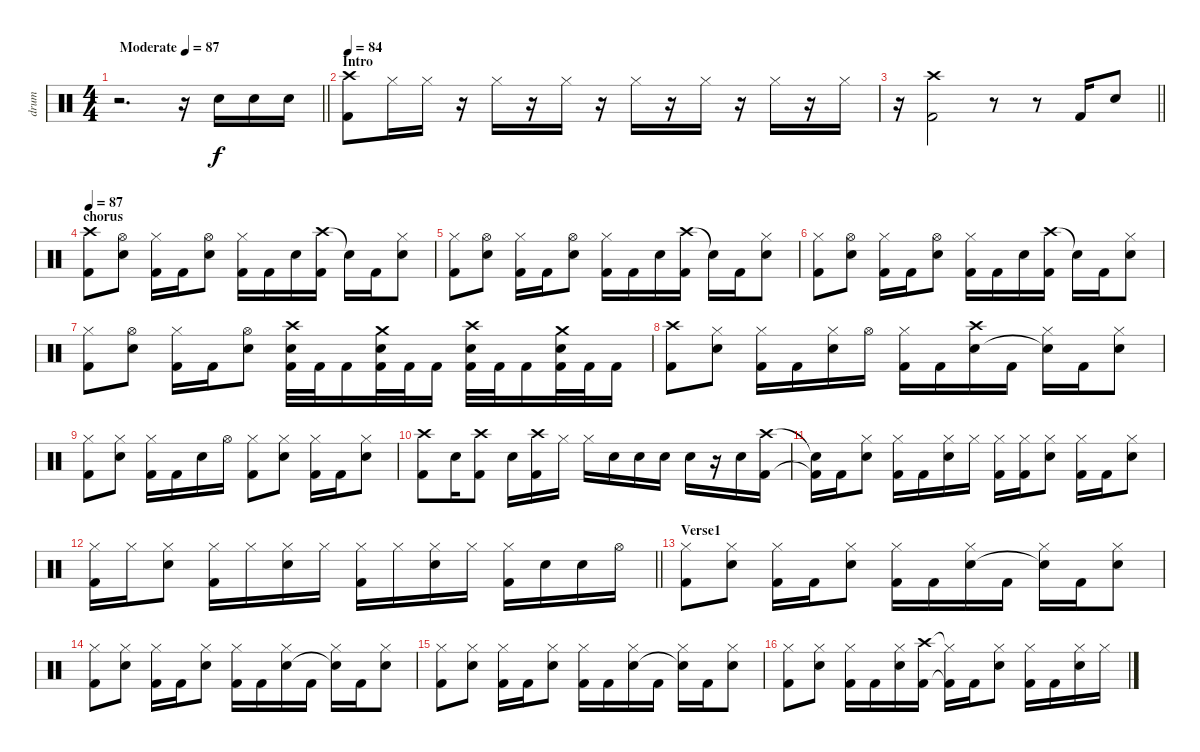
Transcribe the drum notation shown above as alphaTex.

\track ("drum" "drum") {instrument percussion}
\staff {score}
\articulation defaults
\ts (4 4)
\section ("" "")
\tempo (87 "Moderate")
\clef neutral
\barLineRight lightlight
\ks c
r.2{d dy f} r.16 "Snare (hit) 2".16 "Snare (hit) 2".16 "Snare (hit) 2".16 |
\section ("" "Intro")
\tempo 84
("Crash high (hit)" "Kick (hit) 2").8 "Hi-Hat (closed)".16 "Hi-Hat (closed)".16 r.16 "Hi-Hat (closed)".16 r.16 "Hi-Hat (closed)".16 r.16 "Hi-Hat (closed)".16 r.16 "Hi-Hat (closed)".16 r.16 "Hi-Hat (closed)".16 r.16 "Hi-Hat (closed)".16 |
\barLineRight lightlight
r.16 ("Crash high (hit)" "Kick (hit) 2").2 r.8 r.8 "Kick (hit) 2".16 "Snare (hit) 2".8 |
\section ("" "chorus")
\tempo 87
("Crash high (hit)" "Kick (hit) 2").8 ("Hi-Hat (open)" "Snare (hit) 2").8 ("Hi-Hat (closed)" "Kick (hit) 2").16 "Kick (hit) 2".16 ("Hi-Hat (open)" "Snare (hit) 2").8 ("Hi-Hat (closed)" "Kick (hit) 2").16 "Kick (hit) 2".16 "Snare (hit) 2".16 ("Crash high (hit)" "Kick (hit) 2").16 "Snare (hit)"{t}.16 "Kick (hit) 2".16 ("Hi-Hat (closed)" "Snare (hit) 2").8 |
("Hi-Hat (closed)" "Kick (hit) 2").8 ("Hi-Hat (open)" "Snare (hit) 2").8 ("Hi-Hat (closed)" "Kick (hit) 2").16 "Kick (hit) 2".16 ("Hi-Hat (open)" "Snare (hit) 2").8 ("Hi-Hat (closed)" "Kick (hit) 2").16 "Kick (hit) 2".16 "Snare (hit) 2".16 ("Crash high (hit)" "Kick (hit) 2").16 "Snare (hit)"{t}.16 "Kick (hit) 2".16 ("Hi-Hat (closed)" "Snare (hit) 2").8 |
("Hi-Hat (closed)" "Kick (hit) 2").8 ("Hi-Hat (open)" "Snare (hit) 2").8 ("Hi-Hat (closed)" "Kick (hit) 2").16 "Kick (hit) 2".16 ("Hi-Hat (open)" "Snare (hit) 2").8 ("Hi-Hat (closed)" "Kick (hit) 2").16 "Kick (hit) 2".16 "Snare (hit) 2".16 ("Crash high (hit)" "Kick (hit) 2").16 "Snare (hit)"{t}.16 "Kick (hit) 2".16 ("Hi-Hat (closed)" "Snare (hit) 2").8 |
("Hi-Hat (closed)" "Kick (hit) 2").8 ("Hi-Hat (open)" "Snare (hit) 2").8 ("Hi-Hat (closed)" "Kick (hit) 2").16 "Kick (hit) 2".16 ("Hi-Hat (open)" "Snare (hit) 2").8 ("Crash high (hit)" "Snare (hit) 2" "Kick (hit) 2").32 "Kick (hit) 2".32 "Kick (hit) 2".16 ("Crash medium (hit)" "Snare (hit) 2" "Kick (hit) 2").32 "Kick (hit) 2".32 "Kick (hit) 2".16 ("Crash high (hit)" "Snare (hit) 2" "Kick (hit) 2").32 "Kick (hit) 2".32 "Kick (hit) 2".16 ("Crash medium (hit)" "Snare (hit) 2" "Kick (hit) 2").32 "Kick (hit) 2".32 "Kick (hit) 2".16 |
("Crash high (hit)" "Kick (hit) 2").8 ("Hi-Hat (closed)" "Snare (hit) 2").8 ("Hi-Hat (closed)" "Kick (hit) 2").16 "Kick (hit) 2".16 ("Hi-Hat (closed)" "Snare (hit) 2").16 "Hi-Hat (open)".16 ("Hi-Hat (closed)" "Kick (hit) 2").16 "Kick (hit) 2".16 ("Crash high (hit)" "Snare (hit) 2").16 "Kick (hit) 2".16 ("Hi-Hat (closed)" "Snare (hit)"{t}).16 "Kick (hit) 2".16 ("Hi-Hat (closed)" "Snare (hit) 2").8 |
("Hi-Hat (closed)" "Kick (hit) 2").8 ("Hi-Hat (closed)" "Snare (hit) 2").8 ("Hi-Hat (closed)" "Kick (hit) 2").16 "Kick (hit) 2".16 "Snare (hit) 2".16 "Hi-Hat (open)".16 ("Hi-Hat (closed)" "Kick (hit) 2").8 ("Hi-Hat (closed)" "Snare (hit) 2").8 ("Hi-Hat (closed)" "Kick (hit) 2").16 "Kick (hit) 2".16 ("Hi-Hat (closed)" "Snare (hit) 2").8 |
("Crash high (hit)" "Kick (hit) 2").8 "Snare (hit) 2".16 ("Crash high (hit)" "Kick (hit) 2").8 "Snare (hit) 2".16 ("Crash high (hit)" "Kick (hit) 2").16 "Hi-Hat (closed)".16 "Hi-Hat (closed)".16 "Snare (hit) 2".16 "Snare (hit) 2".16 "Snare (hit) 2".16 "Snare (hit) 2".16 r.16 "Snare (hit) 2".16 ("Crash high (hit)" "Kick (hit) 2").16 |
("Snare (hit)"{t} "Kick (hit) 2"{t}).16 "Kick (hit) 2".16 ("Hi-Hat (closed)" "Snare (hit) 2").8 ("Hi-Hat (closed)" "Kick (hit) 2").16 "Kick (hit) 2".16 ("Hi-Hat (closed)" "Snare (hit) 2").16 "Hi-Hat (closed)".16 ("Hi-Hat (closed)" "Kick (hit) 2").16 ("Hi-Hat (closed)" "Kick (hit) 2").16 ("Hi-Hat (closed)" "Snare (hit) 2").8 ("Hi-Hat (closed)" "Kick (hit) 2").16 "Kick (hit) 2".16 ("Hi-Hat (closed)" "Snare (hit) 2").8 |
\barLineRight lightlight
("Hi-Hat (closed)" "Kick (hit) 2").16 "Hi-Hat (closed)".16 ("Hi-Hat (closed)" "Snare (hit) 2").8 ("Hi-Hat (closed)" "Kick (hit) 2").16 "Hi-Hat (closed)".16 ("Hi-Hat (closed)" "Snare (hit) 2").16 "Hi-Hat (closed)".16 ("Hi-Hat (closed)" "Kick (hit) 2").16 "Hi-Hat (closed)".16 ("Hi-Hat (closed)" "Snare (hit) 2").16 "Hi-Hat (closed)".16 ("Hi-Hat (closed)" "Kick (hit) 2").16 "Snare (hit) 2".16 "Snare (hit) 2".16 "Hi-Hat (open)".16 |
\section ("" "Verse1")
("Hi-Hat (closed)" "Kick (hit) 2").8 ("Hi-Hat (closed)" "Snare (hit) 2").8 ("Hi-Hat (closed)" "Kick (hit) 2").16 "Kick (hit) 2".16 ("Hi-Hat (closed)" "Snare (hit) 2").8 ("Hi-Hat (closed)" "Kick (hit) 2").16 "Kick (hit) 2".16 ("Hi-Hat (closed)" "Snare (hit) 2").16 "Kick (hit) 2".16 ("Hi-Hat (closed)" "Snare (hit)"{t}).16 "Kick (hit) 2".16 ("Hi-Hat (closed)" "Snare (hit) 2").8 |
("Hi-Hat (closed)" "Kick (hit) 2").8 ("Hi-Hat (closed)" "Snare (hit) 2").8 ("Hi-Hat (closed)" "Kick (hit) 2").16 "Kick (hit) 2".16 ("Hi-Hat (closed)" "Snare (hit) 2").8 ("Hi-Hat (closed)" "Kick (hit) 2").16 "Kick (hit) 2".16 ("Hi-Hat (closed)" "Snare (hit) 2").16 "Kick (hit) 2".16 ("Hi-Hat (closed)" "Snare (hit)"{t}).16 "Kick (hit) 2".16 ("Hi-Hat (closed)" "Snare (hit) 2").8 |
("Hi-Hat (closed)" "Kick (hit) 2").8 ("Hi-Hat (closed)" "Snare (hit) 2").8 ("Hi-Hat (closed)" "Kick (hit) 2").16 "Kick (hit) 2".16 ("Hi-Hat (closed)" "Snare (hit) 2").8 ("Hi-Hat (closed)" "Kick (hit) 2").16 "Kick (hit) 2".16 ("Hi-Hat (closed)" "Snare (hit) 2").16 "Kick (hit) 2".16 ("Hi-Hat (closed)" "Snare (hit)"{t}).16 "Kick (hit) 2".16 ("Hi-Hat (closed)" "Snare (hit) 2").8 |
("Hi-Hat (closed)" "Kick (hit) 2").8 ("Hi-Hat (closed)" "Snare (hit) 2").8 ("Hi-Hat (closed)" "Kick (hit) 2").16 "Kick (hit) 2".16 ("Hi-Hat (closed)" "Snare (hit) 2").16 ("Crash high (hit)" "Kick (hit) 2").16 ("Hi-Hat (closed)"{t} "Kick (hit) 2"{t}).16 "Kick (hit) 2".16 ("Hi-Hat (closed)" "Snare (hit) 2").8 ("Hi-Hat (closed)" "Kick (hit) 2").16 "Kick (hit) 2".16 ("Hi-Hat (closed)" "Snare (hit) 2").16 "Hi-Hat (closed)".16
